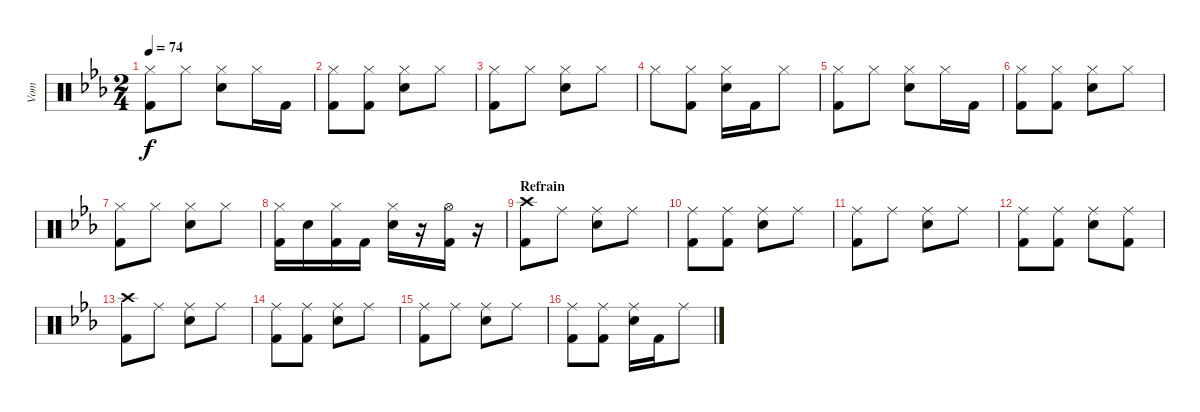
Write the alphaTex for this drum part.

\track ("Vom" "Vom") {instrument percussion}
\staff {score}
\articulation defaults
\ts (2 4)
\tempo 74
\clef neutral
\ks eb
("Hi-Hat (closed)" "Kick (hit) 2").8{dy f} "Hi-Hat (closed)".8 ("Hi-Hat (closed)" "Snare (hit) 2").8 "Hi-Hat (closed)".16 "Kick (hit) 2".16 |
("Hi-Hat (closed)" "Kick (hit) 2").8 ("Hi-Hat (closed)" "Kick (hit) 2").8 ("Hi-Hat (closed)" "Snare (hit) 2").8 "Hi-Hat (closed)".8 |
("Hi-Hat (closed)" "Kick (hit) 2").8 "Hi-Hat (closed)".8 ("Hi-Hat (closed)" "Snare (hit) 2").8 "Hi-Hat (closed)".8 |
"Hi-Hat (closed)".8 ("Hi-Hat (closed)" "Kick (hit) 2").8 ("Hi-Hat (closed)" "Snare (hit) 2").16 "Kick (hit) 2".16 "Hi-Hat (closed)".8 |
("Hi-Hat (closed)" "Kick (hit) 2").8 "Hi-Hat (closed)".8 ("Hi-Hat (closed)" "Snare (hit) 2").8 "Hi-Hat (closed)".16 "Kick (hit) 2".16 |
("Hi-Hat (closed)" "Kick (hit) 2").8 ("Hi-Hat (closed)" "Kick (hit) 2").8 ("Hi-Hat (closed)" "Snare (hit) 2").8 "Hi-Hat (closed)".8 |
("Hi-Hat (closed)" "Kick (hit) 2").8 "Hi-Hat (closed)".8 ("Hi-Hat (closed)" "Snare (hit) 2").8 "Hi-Hat (closed)".8 |
("Hi-Hat (closed)" "Kick (hit) 2").16 "Snare (hit) 2".16 ("Hi-Hat (closed)" "Kick (hit) 2").16 "Kick (hit) 2".16 ("Hi-Hat (closed)" "Snare (hit) 2").16 r.16 ("Hi-Hat (open)" "Kick (hit) 2").16 r.16 |
\section ("" "Refrain")
("Crash high (hit)" "Kick (hit) 2").8 "Ride (middle)".8 ("Ride (middle)" "Snare (hit) 2").8 "Ride (middle)".8 |
("Ride (middle)" "Kick (hit) 2").8 ("Ride (middle)" "Kick (hit) 2").8 ("Ride (middle)" "Snare (hit) 2").8 "Ride (middle)".8 |
("Ride (middle)" "Kick (hit) 2").8 "Ride (middle)".8 ("Ride (middle)" "Snare (hit) 2").8 "Ride (middle)".8 |
("Ride (middle)" "Kick (hit) 2").8 ("Ride (middle)" "Kick (hit) 2").8 ("Ride (middle)" "Snare (hit) 2").8 ("Ride (middle)" "Kick (hit) 2").8 |
("Crash high (hit)" "Kick (hit) 2").8 "Ride (middle)".8 ("Ride (middle)" "Snare (hit) 2").8 "Ride (middle)".8 |
("Ride (middle)" "Kick (hit) 2").8 ("Ride (middle)" "Kick (hit) 2").8 ("Ride (middle)" "Snare (hit) 2").8 "Ride (middle)".8 |
("Ride (middle)" "Kick (hit) 2").8 "Ride (middle)".8 ("Ride (middle)" "Snare (hit) 2").8 "Ride (middle)".8 |
("Ride (middle)" "Kick (hit) 2").8 ("Ride (middle)" "Kick (hit) 2").8 ("Ride (middle)" "Snare (hit) 2").16 "Kick (hit) 2".16 "Ride (middle)".8
